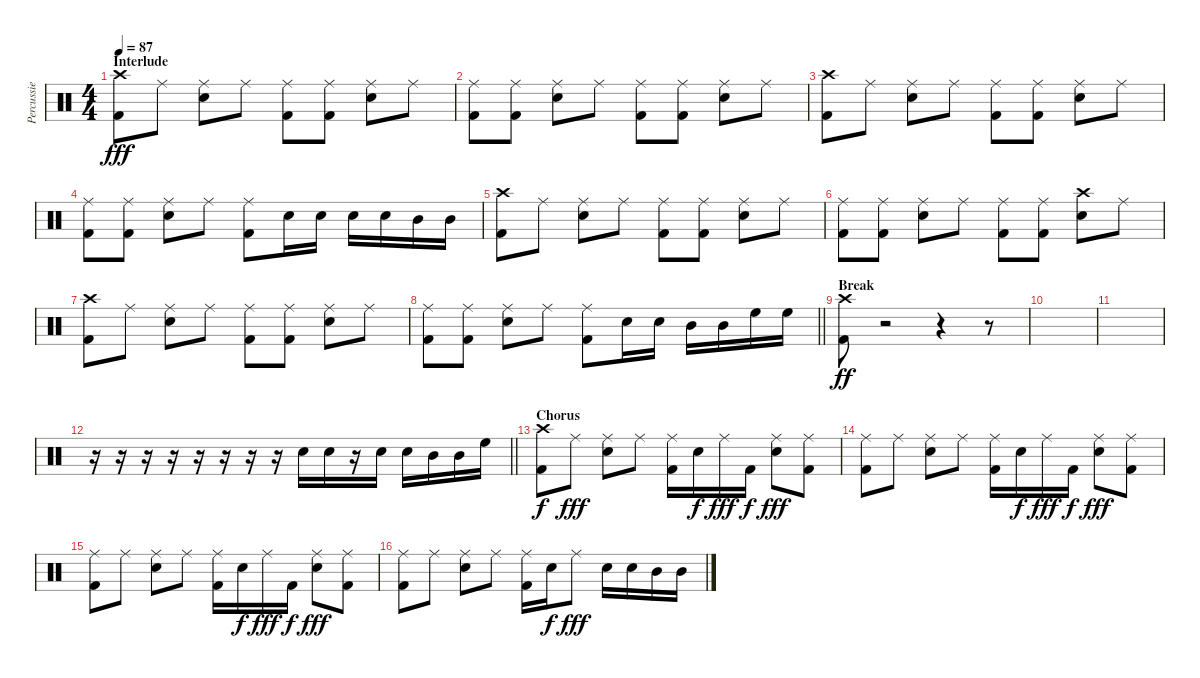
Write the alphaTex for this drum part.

\track ("Percussie" "Percussie") {instrument percussion}
\staff {score}
\articulation defaults
\ts (4 4)
\section ("" "Interlude")
\tempo 87
\clef neutral
\ks c
("Crash high (hit)" "Kick (hit) 2").8{dy fff} "Ride (middle)".8 ("Ride (middle)" "Snare (hit) 2").8 "Ride (middle)".8 ("Ride (middle)" "Kick (hit) 2").8 ("Ride (middle)" "Kick (hit) 2").8 ("Ride (middle)" "Snare (hit) 2").8 "Ride (middle)".8 |
("Ride (middle)" "Kick (hit) 2").8 ("Ride (middle)" "Kick (hit) 2").8 ("Ride (middle)" "Snare (hit) 2").8 "Ride (middle)".8 ("Ride (middle)" "Kick (hit) 2").8 ("Ride (middle)" "Kick (hit) 2").8 ("Ride (middle)" "Snare (hit) 2").8 "Ride (middle)".8 |
("Crash high (hit)" "Kick (hit) 2").8 "Ride (middle)".8 ("Ride (middle)" "Snare (hit) 2").8 "Ride (middle)".8 ("Ride (middle)" "Kick (hit) 2").8 ("Ride (middle)" "Kick (hit) 2").8 ("Ride (middle)" "Snare (hit) 2").8 "Ride (middle)".8 |
("Ride (middle)" "Kick (hit) 2").8 ("Ride (middle)" "Kick (hit) 2").8 ("Ride (middle)" "Snare (hit) 2").8 "Ride (middle)".8 ("Ride (middle)" "Kick (hit) 2").8 "Snare (hit) 2".16 "Snare (hit) 2".16 "Snare (hit) 2".16 "Snare (hit) 2".16 "Mid Tom (hit)".16 "Mid Tom (hit)".16 |
("Crash high (hit)" "Kick (hit) 2").8 "Ride (middle)".8 ("Ride (middle)" "Snare (hit) 2").8 "Ride (middle)".8 ("Ride (middle)" "Kick (hit) 2").8 ("Ride (middle)" "Kick (hit) 2").8 ("Ride (middle)" "Snare (hit) 2").8 "Ride (middle)".8 |
("Ride (middle)" "Kick (hit) 2").8 ("Ride (middle)" "Kick (hit) 2").8 ("Ride (middle)" "Snare (hit) 2").8 "Ride (middle)".8 ("Ride (middle)" "Kick (hit) 2").8 ("Ride (middle)" "Kick (hit) 2").8 ("Crash high (hit)" "Snare (hit) 2").8 "Ride (middle)".8 |
("Crash high (hit)" "Kick (hit) 2").8 "Ride (middle)".8 ("Ride (middle)" "Snare (hit) 2").8 "Ride (middle)".8 ("Ride (middle)" "Kick (hit) 2").8 ("Ride (middle)" "Kick (hit) 2").8 ("Ride (middle)" "Snare (hit) 2").8 "Ride (middle)".8 |
\barLineRight lightlight
("Ride (middle)" "Kick (hit) 2").8 ("Ride (middle)" "Kick (hit) 2").8 ("Ride (middle)" "Snare (hit) 2").8 "Ride (middle)".8 ("Ride (middle)" "Kick (hit) 2").8 "Snare (hit) 2".16 "Snare (hit) 2".16 "Mid Tom (hit)".16 "Mid Tom (hit)".16 "High Floor Tom (hit)".16 "High Floor Tom (hit)".16 |
\section ("" "Break")
("Crash high (hit)" "Kick (hit) 2").8{dy ff} r.2 r.4 r.8 |
|
|
\barLineRight lightlight
r.16 r.16 r.16 r.16 r.16 r.16 r.16 r.16 "Snare (hit) 2".16 "Snare (hit) 2".16 r.16 "Snare (hit) 2".16 "Snare (hit) 2".16 "Mid Tom (hit)".16 "Mid Tom (hit)".16 "High Floor Tom (hit)".16 |
\section ("" "Chorus")
("Crash high (hit)" "Kick (hit) 2").8{dy f} "Ride (middle)".8{dy fff} ("Ride (middle)" "Snare (hit) 2").8 "Ride (middle)".8 ("Ride (middle)" "Kick (hit) 2").16 "Snare (hit) 2".16{dy f} "Ride (middle)".16{dy fff} "Kick (hit) 2".16{dy f} ("Ride (middle)" "Snare (hit) 2").8{dy fff} ("Ride (middle)" "Kick (hit) 2").8 |
("Ride (middle)" "Kick (hit) 2").8 "Ride (middle)".8 ("Ride (middle)" "Snare (hit) 2").8 "Ride (middle)".8 ("Ride (middle)" "Kick (hit) 2").16 "Snare (hit) 2".16{dy f} "Ride (middle)".16{dy fff} "Kick (hit) 2".16{dy f} ("Ride (middle)" "Snare (hit) 2").8{dy fff} ("Ride (middle)" "Kick (hit) 2").8 |
("Ride (middle)" "Kick (hit) 2").8 "Ride (middle)".8 ("Ride (middle)" "Snare (hit) 2").8 "Ride (middle)".8 ("Ride (middle)" "Kick (hit) 2").16 "Snare (hit) 2".16{dy f} "Ride (middle)".16{dy fff} "Kick (hit) 2".16{dy f} ("Ride (middle)" "Snare (hit) 2").8{dy fff} ("Ride (middle)" "Kick (hit) 2").8 |
("Ride (middle)" "Kick (hit) 2").8 "Ride (middle)".8 ("Ride (middle)" "Snare (hit) 2").8 "Ride (middle)".8 ("Ride (middle)" "Kick (hit) 2").16 "Snare (hit) 2".16{dy f} "Ride (middle)".8{dy fff} "Snare (hit) 2".16 "Snare (hit) 2".16 "Mid Tom (hit)".16 "Mid Tom (hit)".16
